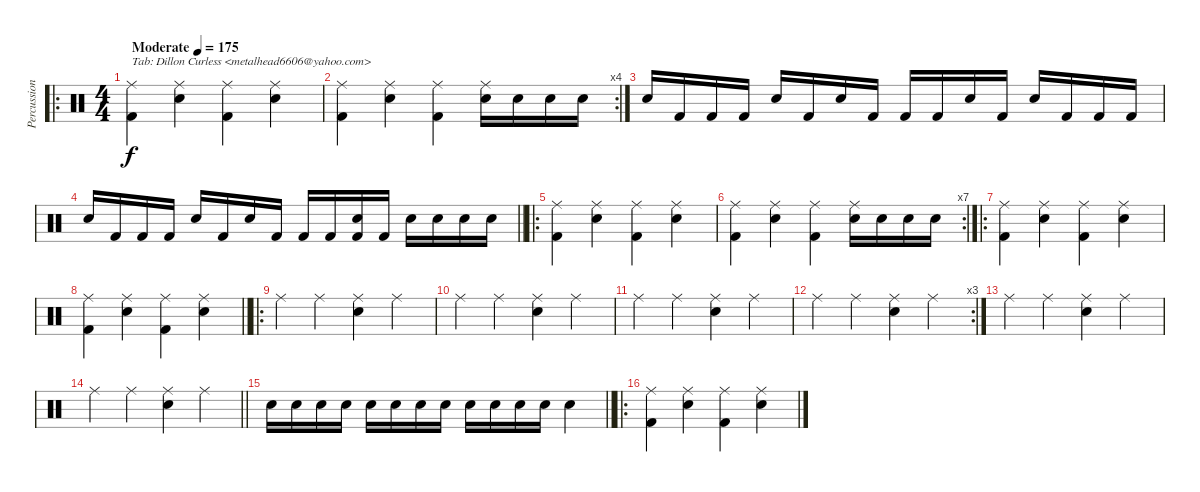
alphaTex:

\track ("Percussion" "Percussion") {instrument percussion}
\staff {score}
\articulation defaults
\ro
\ts (4 4)
\tempo (175 "Moderate")
\clef neutral
\ks c
("Ride (middle)" "Kick (hit) 2").4{txt "Tab: Dillon Curless <metalhead6606@yahoo.com>" dy f} ("Ride (middle)" "Snare (hit) 2").4 ("Ride (middle)" "Kick (hit) 2").4 ("Ride (middle)" "Snare (hit) 2").4 |
\rc 4
("Ride (middle)" "Kick (hit) 2").4 ("Ride (middle)" "Snare (hit) 2").4 ("Ride (middle)" "Kick (hit) 2").4 ("Ride (middle)" "Snare (hit) 2").16 "Snare (hit) 2".16 "Snare (hit) 2".16 "Snare (hit) 2".16 |
"Snare (hit) 2".16 "Kick (hit) 2".16 "Kick (hit) 2".16 "Kick (hit) 2".16 "Snare (hit) 2".16 "Kick (hit) 2".16 "Snare (hit) 2".16 "Kick (hit) 2".16 "Kick (hit) 2".16 "Kick (hit) 2".16 "Snare (hit) 2".16 "Kick (hit) 2".16 "Snare (hit) 2".16 "Kick (hit) 2".16 "Kick (hit) 2".16 "Kick (hit) 2".16 |
\barLineRight lightlight "Snare (hit) 2".16 "Kick (hit) 2".16 "Kick (hit) 2".16 "Kick (hit) 2".16 "Snare (hit) 2".16 "Kick (hit) 2".16 "Snare (hit) 2".16 "Kick (hit) 2".16 "Kick (hit) 2".16 "Kick (hit) 2".16
("Snare (hit) 2" "Kick (hit) 2").16 "Kick (hit) 2".16 "Snare (hit) 2".16 "Snare (hit) 2".16 "Snare (hit) 2".16 "Snare (hit) 2".16 |
\ro
("Ride (middle)" "Kick (hit) 2").4 ("Ride (middle)" "Snare (hit) 2").4 ("Ride (middle)" "Kick (hit) 2").4 ("Ride (middle)" "Snare (hit) 2").4 |
\rc 7
("Ride (middle)" "Kick (hit) 2").4 ("Ride (middle)" "Snare (hit) 2").4 ("Ride (middle)" "Kick (hit) 2").4 ("Ride (middle)" "Snare (hit) 2").16 "Snare (hit) 2".16 "Snare (hit) 2".16 "Snare (hit) 2".16 |
\ro
("Ride (middle)" "Kick (hit) 2").4 ("Ride (middle)" "Snare (hit) 2").4 ("Ride (middle)" "Kick (hit) 2").4 ("Ride (middle)" "Snare (hit) 2").4 |
\barLineRight lightlight
("Ride (middle)" "Kick (hit) 2").4 ("Ride (middle)" "Snare (hit) 2").4 ("Ride (middle)" "Kick (hit) 2").4 ("Ride (middle)" "Snare (hit) 2").4 |
\ro "Ride (middle)".4 "Ride (middle)".4
("Ride (middle)" "Snare (hit) 2").4 "Ride (middle)".4 |
"Ride (middle)".4 "Ride (middle)".4 ("Ride (middle)" "Snare (hit) 2").4 "Ride (middle)".4 |
"Ride (middle)".4 "Ride (middle)".4 ("Ride (middle)" "Snare (hit) 2").4 "Ride (middle)".4 |
\rc 3 "Ride (middle)".4 "Ride (middle)".4
("Ride (middle)" "Snare (hit) 2").4 "Ride (middle)".4 |
"Ride (middle)".4 "Ride (middle)".4 ("Ride (middle)" "Snare (hit) 2").4 "Ride (middle)".4 |
\barLineRight lightlight "Ride (middle)".4 "Ride (middle)".4
("Ride (middle)" "Snare (hit) 2").4 "Ride (middle)".4 |
\barLineRight lightlight "Snare (hit) 2".16 "Snare (hit) 2".16 "Snare (hit) 2".16 "Snare (hit) 2".16 "Snare (hit) 2".16 "Snare (hit) 2".16 "Snare (hit) 2".16 "Snare (hit) 2".16 "Snare (hit) 2".16 "Snare (hit) 2".16 "Snare (hit) 2".16 "Snare (hit) 2".16 "Snare (hit) 2".4
|
\ro
("Ride (middle)" "Kick (hit) 2").4 ("Ride (middle)" "Snare (hit) 2").4 ("Ride (middle)" "Kick (hit) 2").4 ("Ride (middle)" "Snare (hit) 2").4
